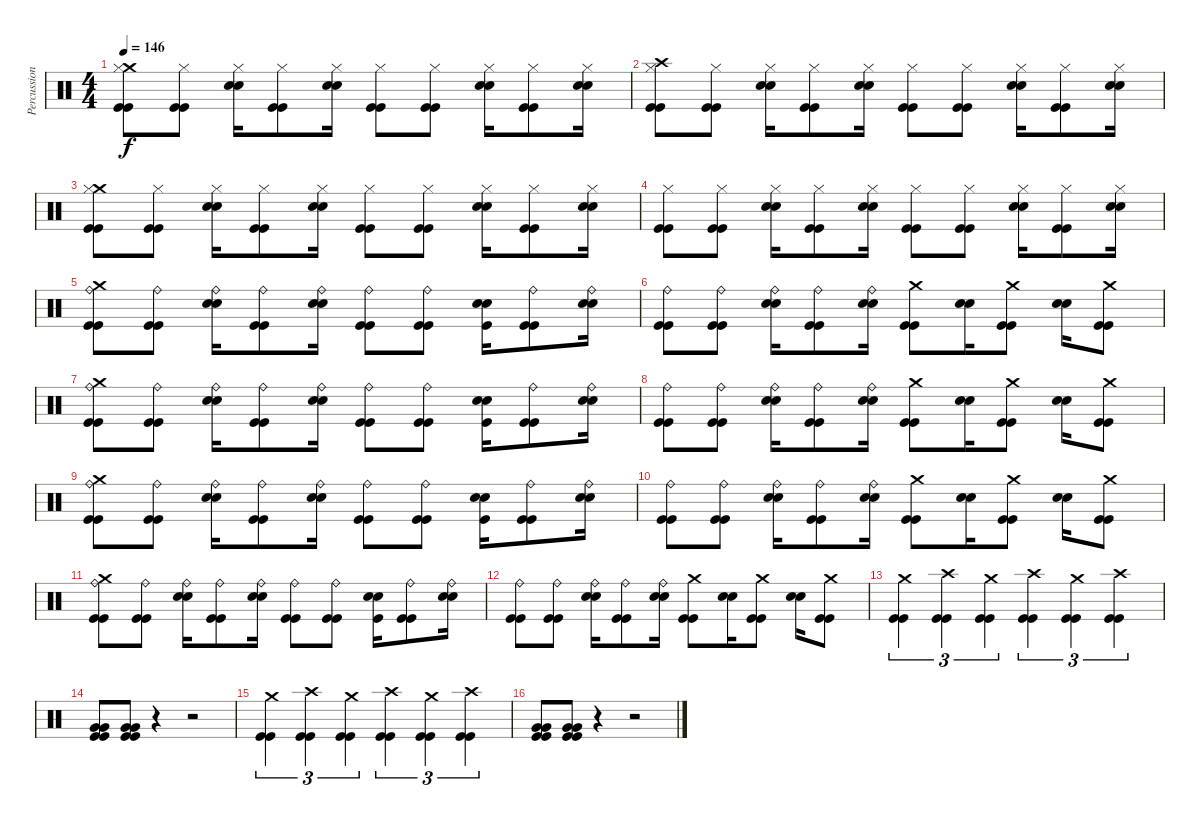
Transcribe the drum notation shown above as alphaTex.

\track ("Percussion" "Percussion") {instrument percussion}
\staff {score}
\articulation defaults
\ts (4 4)
\tempo 146
\clef neutral
\ks c
("Crash medium (hit)" "Hi-Hat (closed)" "Kick (hit)" "Kick (hit)").8{dy f} ("Hi-Hat (closed)" "Kick (hit)" "Kick (hit)").8 ("Snare (hit) 2" "Snare (hit) 2" "Hi-Hat (closed)").16 ("Hi-Hat (closed)" "Kick (hit)" "Kick (hit)").8 ("Snare (hit) 2" "Snare (hit) 2" "Hi-Hat (closed)").16 ("Hi-Hat (closed)" "Kick (hit)" "Kick (hit)").8 ("Hi-Hat (closed)" "Kick (hit)" "Kick (hit)").8 ("Snare (hit) 2" "Snare (hit) 2" "Hi-Hat (closed)").16 ("Hi-Hat (closed)" "Kick (hit)" "Kick (hit)").8 ("Snare (hit) 2" "Snare (hit) 2" "Hi-Hat (closed)").16 |
("Crash high (hit)" "Hi-Hat (closed)" "Kick (hit)" "Kick (hit)").8 ("Hi-Hat (closed)" "Kick (hit)" "Kick (hit)").8 ("Snare (hit) 2" "Snare (hit) 2" "Hi-Hat (closed)").16 ("Hi-Hat (closed)" "Kick (hit)" "Kick (hit)").8 ("Snare (hit) 2" "Snare (hit) 2" "Hi-Hat (closed)").16 ("Hi-Hat (closed)" "Kick (hit)" "Kick (hit)").8 ("Hi-Hat (closed)" "Kick (hit)" "Kick (hit)").8 ("Snare (hit) 2" "Snare (hit) 2" "Hi-Hat (closed)").16 ("Hi-Hat (closed)" "Kick (hit)" "Kick (hit)").8 ("Snare (hit) 2" "Snare (hit) 2" "Hi-Hat (closed)").16 |
("Crash medium (hit)" "Hi-Hat (closed)" "Kick (hit)" "Kick (hit)").8 ("Hi-Hat (closed)" "Kick (hit)" "Kick (hit)").8 ("Snare (hit) 2" "Snare (hit) 2" "Hi-Hat (closed)").16 ("Hi-Hat (closed)" "Kick (hit)" "Kick (hit)").8 ("Snare (hit) 2" "Snare (hit) 2" "Hi-Hat (closed)").16 ("Hi-Hat (closed)" "Kick (hit)" "Kick (hit)").8 ("Hi-Hat (closed)" "Kick (hit)" "Kick (hit)").8 ("Snare (hit) 2" "Snare (hit) 2" "Hi-Hat (closed)").16 ("Hi-Hat (closed)" "Kick (hit)" "Kick (hit)").8 ("Snare (hit) 2" "Snare (hit) 2" "Hi-Hat (closed)").16 |
("Hi-Hat (closed)" "Kick (hit)" "Kick (hit)").8 ("Hi-Hat (closed)" "Kick (hit)" "Kick (hit)").8 ("Snare (hit) 2" "Snare (hit) 2" "Hi-Hat (closed)").16 ("Hi-Hat (closed)" "Kick (hit)" "Kick (hit)").8 ("Snare (hit) 2" "Snare (hit) 2" "Hi-Hat (closed)").16 ("Hi-Hat (closed)" "Kick (hit)" "Kick (hit)").8 ("Hi-Hat (closed)" "Kick (hit)" "Kick (hit)").8 ("Snare (hit) 2" "Snare (hit) 2" "Hi-Hat (closed)").16 ("Hi-Hat (closed)" "Kick (hit)" "Kick (hit)").8 ("Snare (hit) 2" "Snare (hit) 2" "Hi-Hat (closed)").16 |
("Crash medium (hit)" "Ride (bell)" "Kick (hit)" "Kick (hit)").8 ("Ride (bell)" "Kick (hit)" "Kick (hit)").8 ("Snare (hit) 2" "Snare (hit) 2" "Ride (bell)").16 ("Ride (bell)" "Kick (hit)" "Kick (hit)").8 ("Snare (hit) 2" "Snare (hit) 2" "Ride (bell)").16 ("Ride (bell)" "Kick (hit)" "Kick (hit)").8 ("Ride (bell)" "Kick (hit)" "Kick (hit)").8 ("Snare (hit) 2" "Snare (hit) 2" "Kick (hit)").16 ("Ride (bell)" "Kick (hit)" "Kick (hit)").8 ("Snare (hit) 2" "Snare (hit) 2" "Ride (bell)").16 |
("Ride (bell)" "Kick (hit)" "Kick (hit)").8 ("Ride (bell)" "Kick (hit)" "Kick (hit)").8 ("Snare (hit) 2" "Snare (hit) 2" "Ride (bell)").16 ("Ride (bell)" "Kick (hit)" "Kick (hit)").8 ("Snare (hit) 2" "Snare (hit) 2" "Ride (bell)").16 ("Crash medium (hit)" "Kick (hit)" "Kick (hit)").8 ("Snare (hit) 2" "Snare (hit) 2").16 ("Crash medium (hit)" "Kick (hit)" "Kick (hit)").8 ("Snare (hit) 2" "Snare (hit) 2").16 ("Crash medium (hit)" "Kick (hit)" "Kick (hit)").8 |
("Crash medium (hit)" "Ride (bell)" "Kick (hit)" "Kick (hit)").8 ("Ride (bell)" "Kick (hit)" "Kick (hit)").8 ("Snare (hit) 2" "Snare (hit) 2" "Ride (bell)").16 ("Ride (bell)" "Kick (hit)" "Kick (hit)").8 ("Snare (hit) 2" "Snare (hit) 2" "Ride (bell)").16 ("Ride (bell)" "Kick (hit)" "Kick (hit)").8 ("Ride (bell)" "Kick (hit)" "Kick (hit)").8 ("Snare (hit) 2" "Snare (hit) 2" "Kick (hit)").16 ("Ride (bell)" "Kick (hit)" "Kick (hit)").8 ("Snare (hit) 2" "Snare (hit) 2" "Ride (bell)").16 |
("Ride (bell)" "Kick (hit)" "Kick (hit)").8 ("Ride (bell)" "Kick (hit)" "Kick (hit)").8 ("Snare (hit) 2" "Snare (hit) 2" "Ride (bell)").16 ("Ride (bell)" "Kick (hit)" "Kick (hit)").8 ("Snare (hit) 2" "Snare (hit) 2" "Ride (bell)").16 ("Crash medium (hit)" "Kick (hit)" "Kick (hit)").8 ("Snare (hit) 2" "Snare (hit) 2").16 ("Crash medium (hit)" "Kick (hit)" "Kick (hit)").8 ("Snare (hit) 2" "Snare (hit) 2").16 ("Crash medium (hit)" "Kick (hit)" "Kick (hit)").8 |
("Crash medium (hit)" "Ride (bell)" "Kick (hit)" "Kick (hit)").8 ("Ride (bell)" "Kick (hit)" "Kick (hit)").8 ("Snare (hit) 2" "Snare (hit) 2" "Ride (bell)").16 ("Ride (bell)" "Kick (hit)" "Kick (hit)").8 ("Snare (hit) 2" "Snare (hit) 2" "Ride (bell)").16 ("Ride (bell)" "Kick (hit)" "Kick (hit)").8 ("Ride (bell)" "Kick (hit)" "Kick (hit)").8 ("Snare (hit) 2" "Snare (hit) 2" "Kick (hit)").16 ("Ride (bell)" "Kick (hit)" "Kick (hit)").8 ("Snare (hit) 2" "Snare (hit) 2" "Ride (bell)").16 |
("Ride (bell)" "Kick (hit)" "Kick (hit)").8 ("Ride (bell)" "Kick (hit)" "Kick (hit)").8 ("Snare (hit) 2" "Snare (hit) 2" "Ride (bell)").16 ("Ride (bell)" "Kick (hit)" "Kick (hit)").8 ("Snare (hit) 2" "Snare (hit) 2" "Ride (bell)").16 ("Crash medium (hit)" "Kick (hit)" "Kick (hit)").8 ("Snare (hit) 2" "Snare (hit) 2").16 ("Crash medium (hit)" "Kick (hit)" "Kick (hit)").8 ("Snare (hit) 2" "Snare (hit) 2").16 ("Crash medium (hit)" "Kick (hit)" "Kick (hit)").8 |
("Crash medium (hit)" "Ride (bell)" "Kick (hit)" "Kick (hit)").8 ("Ride (bell)" "Kick (hit)" "Kick (hit)").8 ("Snare (hit) 2" "Snare (hit) 2" "Ride (bell)").16 ("Ride (bell)" "Kick (hit)" "Kick (hit)").8 ("Snare (hit) 2" "Snare (hit) 2" "Ride (bell)").16 ("Ride (bell)" "Kick (hit)" "Kick (hit)").8 ("Ride (bell)" "Kick (hit)" "Kick (hit)").8 ("Snare (hit) 2" "Snare (hit) 2" "Kick (hit)").16 ("Ride (bell)" "Kick (hit)" "Kick (hit)").8 ("Snare (hit) 2" "Snare (hit) 2" "Ride (bell)").16 |
("Ride (bell)" "Kick (hit)" "Kick (hit)").8 ("Ride (bell)" "Kick (hit)" "Kick (hit)").8 ("Snare (hit) 2" "Snare (hit) 2" "Ride (bell)").16 ("Ride (bell)" "Kick (hit)" "Kick (hit)").8 ("Snare (hit) 2" "Snare (hit) 2" "Ride (bell)").16 ("Crash medium (hit)" "Kick (hit)" "Kick (hit)").8 ("Snare (hit) 2" "Snare (hit) 2").16 ("Crash medium (hit)" "Kick (hit)" "Kick (hit)").8 ("Snare (hit) 2" "Snare (hit) 2").16 ("Crash medium (hit)" "Kick (hit)" "Kick (hit)").8 |
("Crash medium (hit)" "Kick (hit)" "Kick (hit)").4{tu (3 2)} ("Crash high (hit)" "Kick (hit)" "Kick (hit)").4{tu (3 2)} ("Crash medium (hit)" "Kick (hit)" "Kick (hit)").4{tu (3 2)} ("Crash high (hit)" "Kick (hit)" "Kick (hit)").4{tu (3 2)} ("Crash medium (hit)" "Kick (hit)" "Kick (hit)").4{tu (3 2)} ("Crash high (hit)" "Kick (hit)" "Kick (hit)").4{tu (3 2)} |
("Very Low Tom (hit)" "Very Low Tom (hit)" "Kick (hit)" "Kick (hit)").8 ("Very Low Tom (hit)" "Very Low Tom (hit)" "Kick (hit)" "Kick (hit)").8 r.4 r.2 |
("Crash medium (hit)" "Kick (hit)" "Kick (hit)").4{tu (3 2)} ("Crash high (hit)" "Kick (hit)" "Kick (hit)").4{tu (3 2)} ("Crash medium (hit)" "Kick (hit)" "Kick (hit)").4{tu (3 2)} ("Crash high (hit)" "Kick (hit)" "Kick (hit)").4{tu (3 2)} ("Crash medium (hit)" "Kick (hit)" "Kick (hit)").4{tu (3 2)} ("Crash high (hit)" "Kick (hit)" "Kick (hit)").4{tu (3 2)} |
("Very Low Tom (hit)" "Very Low Tom (hit)" "Kick (hit)" "Kick (hit)").8 ("Very Low Tom (hit)" "Very Low Tom (hit)" "Kick (hit)" "Kick (hit)").8 r.4 r.2
